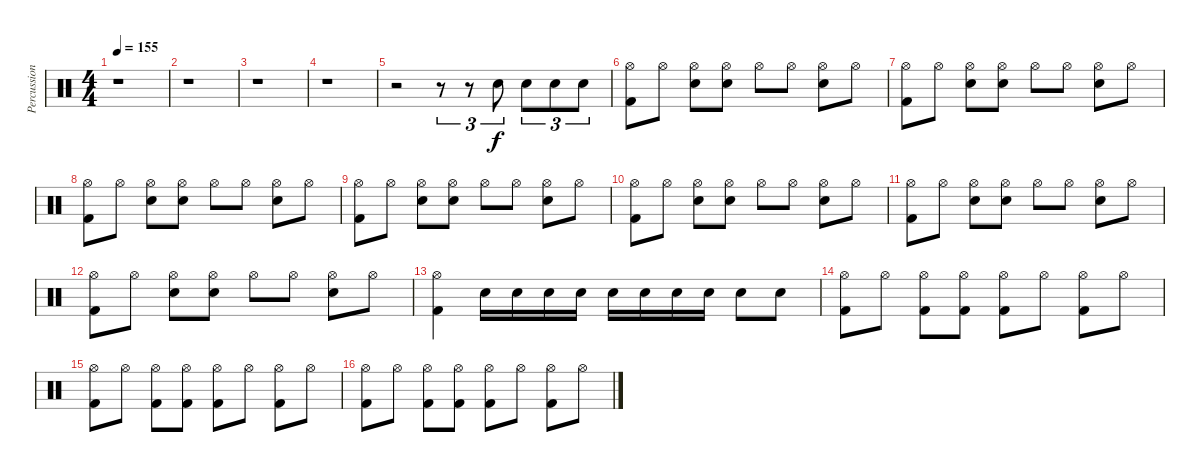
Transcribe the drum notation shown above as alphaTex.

\track ("Percussion" "Percussion") {instrument percussion}
\staff {score}
\articulation defaults
\ts (4 4)
\tempo 155
\clef neutral
\ks c
r.1{dy f} |
r.1 |
r.1 |
r.1 |
r.2 r.8{tu (3 2)} r.8{tu (3 2)} "Snare (hit) 2".8{tu (3 2)} "Snare (hit) 2".8{tu (3 2)} "Snare (hit) 2".8{tu (3 2)} "Snare (hit) 2".8{tu (3 2)} |
("Hi-Hat (open)" "Kick (hit) 2").8 "Hi-Hat (open)".8 ("Hi-Hat (open)" "Snare (hit) 2").8 ("Hi-Hat (open)" "Snare (hit) 2").8 "Hi-Hat (open)".8 "Hi-Hat (open)".8 ("Hi-Hat (open)" "Snare (hit) 2").8 "Hi-Hat (open)".8 |
("Hi-Hat (open)" "Kick (hit) 2").8 "Hi-Hat (open)".8 ("Hi-Hat (open)" "Snare (hit) 2").8 ("Hi-Hat (open)" "Snare (hit) 2").8 "Hi-Hat (open)".8 "Hi-Hat (open)".8 ("Hi-Hat (open)" "Snare (hit) 2").8 "Hi-Hat (open)".8 |
("Hi-Hat (open)" "Kick (hit) 2").8 "Hi-Hat (open)".8 ("Hi-Hat (open)" "Snare (hit) 2").8 ("Hi-Hat (open)" "Snare (hit) 2").8 "Hi-Hat (open)".8 "Hi-Hat (open)".8 ("Hi-Hat (open)" "Snare (hit) 2").8 "Hi-Hat (open)".8 |
("Hi-Hat (open)" "Kick (hit) 2").8 "Hi-Hat (open)".8 ("Hi-Hat (open)" "Snare (hit) 2").8 ("Hi-Hat (open)" "Snare (hit) 2").8 "Hi-Hat (open)".8 "Hi-Hat (open)".8 ("Hi-Hat (open)" "Snare (hit) 2").8 "Hi-Hat (open)".8 |
("Hi-Hat (open)" "Kick (hit) 2").8 "Hi-Hat (open)".8 ("Hi-Hat (open)" "Snare (hit) 2").8 ("Hi-Hat (open)" "Snare (hit) 2").8 "Hi-Hat (open)".8 "Hi-Hat (open)".8 ("Hi-Hat (open)" "Snare (hit) 2").8 "Hi-Hat (open)".8 |
("Hi-Hat (open)" "Kick (hit) 2").8 "Hi-Hat (open)".8 ("Hi-Hat (open)" "Snare (hit) 2").8 ("Hi-Hat (open)" "Snare (hit) 2").8 "Hi-Hat (open)".8 "Hi-Hat (open)".8 ("Hi-Hat (open)" "Snare (hit) 2").8 "Hi-Hat (open)".8 |
("Hi-Hat (open)" "Kick (hit) 2").8 "Hi-Hat (open)".8 ("Hi-Hat (open)" "Snare (hit) 2").8 ("Hi-Hat (open)" "Snare (hit) 2").8 "Hi-Hat (open)".8 "Hi-Hat (open)".8 ("Hi-Hat (open)" "Snare (hit) 2").8 "Hi-Hat (open)".8 |
("Hi-Hat (open)" "Kick (hit) 2").4 "Snare (hit) 2".16 "Snare (hit) 2".16 "Snare (hit) 2".16 "Snare (hit) 2".16 "Snare (hit) 2".16 "Snare (hit) 2".16 "Snare (hit) 2".16 "Snare (hit) 2".16 "Snare (hit) 2".8 "Snare (hit) 2".8 |
("Hi-Hat (open)" "Kick (hit) 2").8 "Hi-Hat (open)".8 ("Hi-Hat (open)" "Kick (hit) 2").8 ("Hi-Hat (open)" "Kick (hit) 2").8 ("Hi-Hat (open)" "Kick (hit) 2").8 "Hi-Hat (open)".8 ("Hi-Hat (open)" "Kick (hit) 2").8 "Hi-Hat (open)".8 |
("Hi-Hat (open)" "Kick (hit) 2").8 "Hi-Hat (open)".8 ("Hi-Hat (open)" "Kick (hit) 2").8 ("Hi-Hat (open)" "Kick (hit) 2").8 ("Hi-Hat (open)" "Kick (hit) 2").8 "Hi-Hat (open)".8 ("Hi-Hat (open)" "Kick (hit) 2").8 "Hi-Hat (open)".8 |
("Hi-Hat (open)" "Kick (hit) 2").8 "Hi-Hat (open)".8 ("Hi-Hat (open)" "Kick (hit) 2").8 ("Hi-Hat (open)" "Kick (hit) 2").8 ("Hi-Hat (open)" "Kick (hit) 2").8 "Hi-Hat (open)".8 ("Hi-Hat (open)" "Kick (hit) 2").8 "Hi-Hat (open)".8
